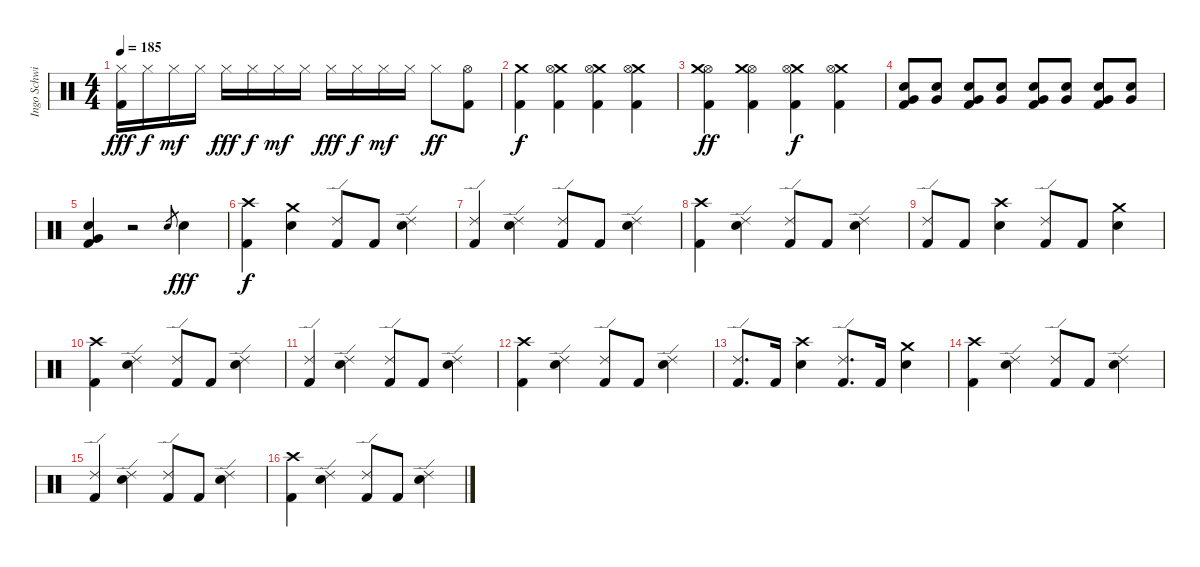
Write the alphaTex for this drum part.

\track ("Ingo Schwischtenberg" "Ingo Schwi") {instrument percussion}
\staff {score}
\articulation defaults
\ts (4 4)
\tempo 185
\clef neutral
\ks c
("Hi-Hat (closed)" "Kick (hit) 2").16{dy fff} "Hi-Hat (closed)".16{dy f} "Hi-Hat (closed)".16{dy mf} "Hi-Hat (closed)".16 "Hi-Hat (closed)".16{dy fff} "Hi-Hat (closed)".16{dy f} "Hi-Hat (closed)".16{dy mf} "Hi-Hat (closed)".16 "Hi-Hat (closed)".16{dy fff} "Hi-Hat (closed)".16{dy f} "Hi-Hat (closed)".16{dy mf} "Hi-Hat (closed)".16 "Hi-Hat (closed)".8{dy ff} ("Hi-Hat (open)" "Kick (hit) 2").8 |
("Crash medium (hit)" "Kick (hit) 2").4{dy f} ("Crash medium (hit)" "Hi-Hat (open)" "Kick (hit) 2").4 ("Crash medium (hit)" "Hi-Hat (open)" "Kick (hit) 2").4 ("Crash medium (hit)" "Hi-Hat (open)" "Kick (hit) 2").4 |
("Hi-Hat (open)" "Crash medium (hit)" "Kick (hit) 2").4{dy ff} ("Hi-Hat (open)" "Crash medium (hit)" "Kick (hit) 2").4 ("Crash medium (hit)" "Hi-Hat (open)" "Kick (hit) 2").4{dy f} ("Crash medium (hit)" "Hi-Hat (open)" "Kick (hit) 2").4 |
("Electric Snare (hit)" "Very Low Tom (hit)" "Kick (hit) 2").8 ("Electric Snare (hit)" "Very Low Tom (hit)").8 ("Electric Snare (hit)" "Very Low Tom (hit)" "Kick (hit) 2").8 ("Electric Snare (hit)" "Very Low Tom (hit)").8 ("Electric Snare (hit)" "Very Low Tom (hit)" "Kick (hit) 2").8 ("Electric Snare (hit)" "Very Low Tom (hit)").8 ("Electric Snare (hit)" "Very Low Tom (hit)" "Kick (hit) 2").8 ("Electric Snare (hit)" "Very Low Tom (hit)").8 |
("Electric Snare (hit)" "Very Low Tom (hit)" "Kick (hit) 2").4 r.2 "Electric Snare (hit)".8{gr} "Electric Snare (hit)".4{dy fff} |
("Crash high (hit)" "Kick (hit) 2").4{dy f} ("Crash medium (hit)" "Electric Snare (hit)").4 ("Ride (edge) 2" "Kick (hit) 2").8 "Kick (hit) 2".8 ("Ride (edge) 2" "Electric Snare (hit)").4 |
("Ride (edge) 2" "Kick (hit) 2").4 ("Ride (edge) 2" "Electric Snare (hit)").4 ("Ride (edge) 2" "Kick (hit) 2").8 "Kick (hit) 2".8 ("Ride (edge) 2" "Electric Snare (hit)").4 |
("Crash high (hit)" "Kick (hit) 2").4 ("Ride (edge) 2" "Electric Snare (hit)").4 ("Ride (edge) 2" "Kick (hit) 2").8 "Kick (hit) 2".8 ("Ride (edge) 2" "Electric Snare (hit)").4 |
("Ride (edge) 2" "Kick (hit) 2").8 "Kick (hit) 2".8 ("Crash high (hit)" "Electric Snare (hit)").4 ("Ride (edge) 2" "Kick (hit) 2").8 "Kick (hit) 2".8 ("Crash medium (hit)" "Electric Snare (hit)").4 |
("Crash high (hit)" "Kick (hit) 2").4 ("Ride (edge) 2" "Electric Snare (hit)").4 ("Ride (edge) 2" "Kick (hit) 2").8 "Kick (hit) 2".8 ("Ride (edge) 2" "Electric Snare (hit)").4 |
("Ride (edge) 2" "Kick (hit) 2").4 ("Ride (edge) 2" "Electric Snare (hit)").4 ("Ride (edge) 2" "Kick (hit) 2").8 "Kick (hit) 2".8 ("Ride (edge) 2" "Electric Snare (hit)").4 |
("Crash high (hit)" "Kick (hit) 2").4 ("Ride (edge) 2" "Electric Snare (hit)").4 ("Ride (edge) 2" "Kick (hit) 2").8 "Kick (hit) 2".8 ("Ride (edge) 2" "Electric Snare (hit)").4 |
("Ride (edge) 2" "Kick (hit) 2").8{d} "Kick (hit) 2".16 ("Crash high (hit)" "Electric Snare (hit)").4 ("Ride (edge) 2" "Kick (hit) 2").8{d} "Kick (hit) 2".16 ("Crash medium (hit)" "Electric Snare (hit)").4 |
("Crash high (hit)" "Kick (hit) 2").4 ("Ride (edge) 2" "Electric Snare (hit)").4 ("Ride (edge) 2" "Kick (hit) 2").8 "Kick (hit) 2".8 ("Ride (edge) 2" "Electric Snare (hit)").4 |
("Ride (edge) 2" "Kick (hit) 2").4 ("Ride (edge) 2" "Electric Snare (hit)").4 ("Ride (edge) 2" "Kick (hit) 2").8 "Kick (hit) 2".8 ("Ride (edge) 2" "Electric Snare (hit)").4 |
("Crash high (hit)" "Kick (hit) 2").4 ("Ride (edge) 2" "Electric Snare (hit)").4 ("Ride (edge) 2" "Kick (hit) 2").8 "Kick (hit) 2".8 ("Ride (edge) 2" "Electric Snare (hit)").4
